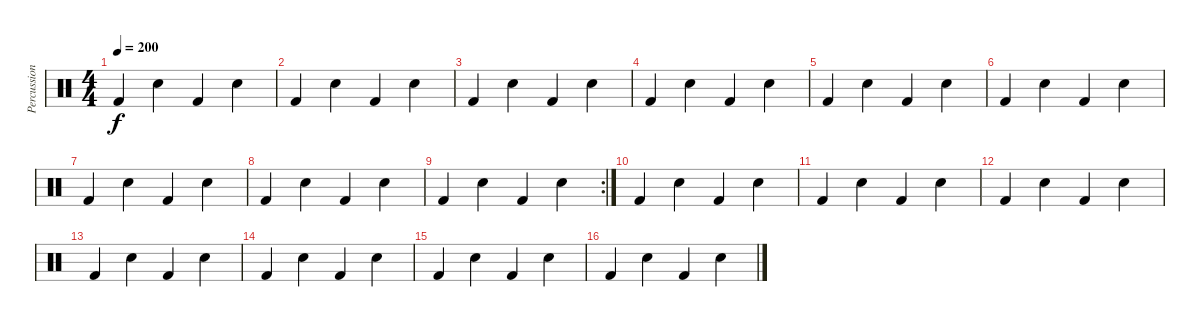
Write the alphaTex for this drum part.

\track ("Percussion" "Percussion") {instrument percussion}
\staff {score}
\articulation defaults
\ts (4 4)
\tempo 200
\clef neutral
\ks c "Kick (hit) 2".4{dy f} "Electric Snare (hit)".4 "Kick (hit) 2".4 "Electric Snare (hit)".4
|
"Kick (hit) 2".4 "Electric Snare (hit)".4 "Kick (hit) 2".4 "Electric Snare (hit)".4 |
"Kick (hit) 2".4 "Electric Snare (hit)".4 "Kick (hit) 2".4 "Electric Snare (hit)".4 |
"Kick (hit) 2".4 "Electric Snare (hit)".4 "Kick (hit) 2".4 "Electric Snare (hit)".4 |
"Kick (hit) 2".4 "Electric Snare (hit)".4 "Kick (hit) 2".4 "Electric Snare (hit)".4 |
"Kick (hit) 2".4 "Electric Snare (hit)".4 "Kick (hit) 2".4 "Electric Snare (hit)".4 |
"Kick (hit) 2".4 "Electric Snare (hit)".4 "Kick (hit) 2".4 "Electric Snare (hit)".4 |
"Kick (hit) 2".4 "Electric Snare (hit)".4 "Kick (hit) 2".4 "Electric Snare (hit)".4 |
\rc 2 "Kick (hit) 2".4 "Electric Snare (hit)".4 "Kick (hit) 2".4 "Electric Snare (hit)".4
|
"Kick (hit) 2".4 "Electric Snare (hit)".4 "Kick (hit) 2".4 "Electric Snare (hit)".4 |
"Kick (hit) 2".4 "Electric Snare (hit)".4 "Kick (hit) 2".4 "Electric Snare (hit)".4 |
"Kick (hit) 2".4 "Electric Snare (hit)".4 "Kick (hit) 2".4 "Electric Snare (hit)".4 |
"Kick (hit) 2".4 "Electric Snare (hit)".4 "Kick (hit) 2".4 "Electric Snare (hit)".4 |
"Kick (hit) 2".4 "Electric Snare (hit)".4 "Kick (hit) 2".4 "Electric Snare (hit)".4 |
"Kick (hit) 2".4 "Electric Snare (hit)".4 "Kick (hit) 2".4 "Electric Snare (hit)".4 |
"Kick (hit) 2".4 "Electric Snare (hit)".4 "Kick (hit) 2".4 "Electric Snare (hit)".4
